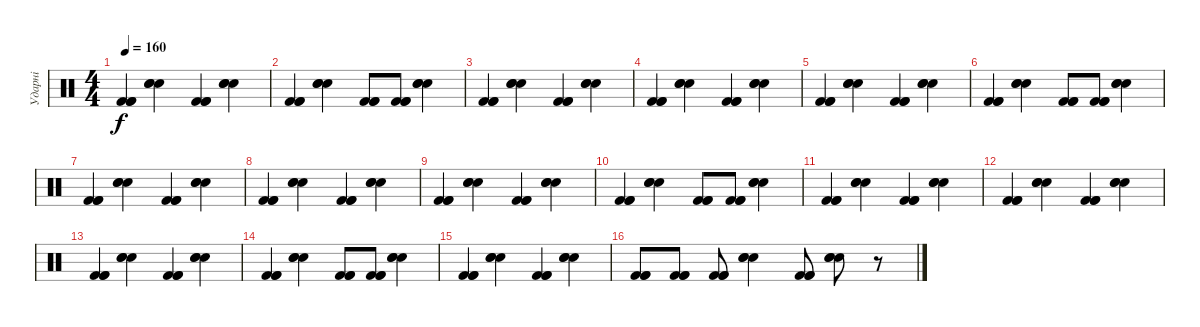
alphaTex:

\track ("Ударні" "Ударні") {instrument percussion}
\staff {score}
\articulation defaults
\ts (4 4)
\tempo 160
\clef neutral
\ks c
("Kick (hit) 2" "Kick (hit) 2" "Kick (hit) 2").4{dy f} ("Snare (hit) 2" "Snare (hit) 2" "Snare (hit) 2").4 ("Kick (hit) 2" "Kick (hit) 2" "Kick (hit) 2").4 ("Snare (hit) 2" "Snare (hit) 2" "Snare (hit) 2").4 |
("Kick (hit) 2" "Kick (hit) 2" "Kick (hit) 2").4 ("Snare (hit) 2" "Snare (hit) 2" "Snare (hit) 2").4 ("Kick (hit) 2" "Kick (hit) 2" "Kick (hit) 2").8 ("Kick (hit) 2" "Kick (hit) 2" "Kick (hit) 2").8 ("Snare (hit) 2" "Snare (hit) 2" "Snare (hit) 2").4 |
("Kick (hit) 2" "Kick (hit) 2" "Kick (hit) 2").4 ("Snare (hit) 2" "Snare (hit) 2" "Snare (hit) 2").4 ("Kick (hit) 2" "Kick (hit) 2" "Kick (hit) 2").4 ("Snare (hit) 2" "Snare (hit) 2" "Snare (hit) 2").4 |
("Kick (hit) 2" "Kick (hit) 2" "Kick (hit) 2").4 ("Snare (hit) 2" "Snare (hit) 2" "Snare (hit) 2").4 ("Kick (hit) 2" "Kick (hit) 2" "Kick (hit) 2").4 ("Snare (hit) 2" "Snare (hit) 2" "Snare (hit) 2").4 |
("Kick (hit) 2" "Kick (hit) 2" "Kick (hit) 2").4 ("Snare (hit) 2" "Snare (hit) 2" "Snare (hit) 2").4 ("Kick (hit) 2" "Kick (hit) 2" "Kick (hit) 2").4 ("Snare (hit) 2" "Snare (hit) 2" "Snare (hit) 2").4 |
("Kick (hit) 2" "Kick (hit) 2" "Kick (hit) 2").4 ("Snare (hit) 2" "Snare (hit) 2" "Snare (hit) 2").4 ("Kick (hit) 2" "Kick (hit) 2" "Kick (hit) 2").8 ("Kick (hit) 2" "Kick (hit) 2" "Kick (hit) 2").8 ("Snare (hit) 2" "Snare (hit) 2" "Snare (hit) 2").4 |
("Kick (hit) 2" "Kick (hit) 2" "Kick (hit) 2").4 ("Snare (hit) 2" "Snare (hit) 2" "Snare (hit) 2").4 ("Kick (hit) 2" "Kick (hit) 2" "Kick (hit) 2").4 ("Snare (hit) 2" "Snare (hit) 2" "Snare (hit) 2").4 |
("Kick (hit) 2" "Kick (hit) 2" "Kick (hit) 2").4 ("Snare (hit) 2" "Snare (hit) 2" "Snare (hit) 2").4 ("Kick (hit) 2" "Kick (hit) 2" "Kick (hit) 2").4 ("Snare (hit) 2" "Snare (hit) 2" "Snare (hit) 2").4 |
("Kick (hit) 2" "Kick (hit) 2" "Kick (hit) 2").4 ("Snare (hit) 2" "Snare (hit) 2" "Snare (hit) 2").4 ("Kick (hit) 2" "Kick (hit) 2" "Kick (hit) 2").4 ("Snare (hit) 2" "Snare (hit) 2" "Snare (hit) 2").4 |
("Kick (hit) 2" "Kick (hit) 2" "Kick (hit) 2").4 ("Snare (hit) 2" "Snare (hit) 2" "Snare (hit) 2").4 ("Kick (hit) 2" "Kick (hit) 2" "Kick (hit) 2").8 ("Kick (hit) 2" "Kick (hit) 2" "Kick (hit) 2").8 ("Snare (hit) 2" "Snare (hit) 2" "Snare (hit) 2").4 |
("Kick (hit) 2" "Kick (hit) 2" "Kick (hit) 2").4 ("Snare (hit) 2" "Snare (hit) 2" "Snare (hit) 2").4 ("Kick (hit) 2" "Kick (hit) 2" "Kick (hit) 2").4 ("Snare (hit) 2" "Snare (hit) 2" "Snare (hit) 2").4 |
("Kick (hit) 2" "Kick (hit) 2" "Kick (hit) 2").4 ("Snare (hit) 2" "Snare (hit) 2" "Snare (hit) 2").4 ("Kick (hit) 2" "Kick (hit) 2" "Kick (hit) 2").4 ("Snare (hit) 2" "Snare (hit) 2" "Snare (hit) 2").4 |
("Kick (hit) 2" "Kick (hit) 2" "Kick (hit) 2").4 ("Snare (hit) 2" "Snare (hit) 2" "Snare (hit) 2").4 ("Kick (hit) 2" "Kick (hit) 2" "Kick (hit) 2").4 ("Snare (hit) 2" "Snare (hit) 2" "Snare (hit) 2").4 |
("Kick (hit) 2" "Kick (hit) 2" "Kick (hit) 2").4 ("Snare (hit) 2" "Snare (hit) 2" "Snare (hit) 2").4 ("Kick (hit) 2" "Kick (hit) 2" "Kick (hit) 2").8 ("Kick (hit) 2" "Kick (hit) 2" "Kick (hit) 2").8 ("Snare (hit) 2" "Snare (hit) 2" "Snare (hit) 2").4 |
("Kick (hit) 2" "Kick (hit) 2" "Kick (hit) 2").4 ("Snare (hit) 2" "Snare (hit) 2" "Snare (hit) 2").4 ("Kick (hit) 2" "Kick (hit) 2" "Kick (hit) 2").4 ("Snare (hit) 2" "Snare (hit) 2" "Snare (hit) 2").4 |
("Kick (hit) 2" "Kick (hit) 2" "Kick (hit) 2").8 ("Kick (hit) 2" "Kick (hit) 2" "Kick (hit) 2").8 ("Kick (hit) 2" "Kick (hit) 2" "Kick (hit) 2").8 ("Snare (hit) 2" "Snare (hit) 2" "Snare (hit) 2").4 ("Kick (hit) 2" "Kick (hit) 2" "Kick (hit) 2").8 ("Snare (hit) 2" "Snare (hit) 2" "Snare (hit) 2").8 r.8
